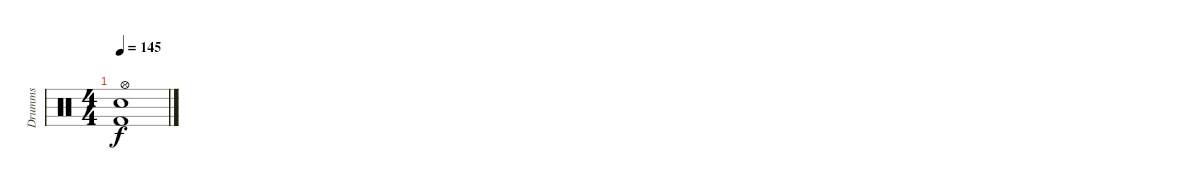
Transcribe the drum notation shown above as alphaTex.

\track ("Drumms" "Drumms") {instrument percussion}
\staff {score}
\articulation defaults
\ts (4 4)
\tempo 145
\clef neutral
\ks c
("Electric Snare (hit)" "Hi-Hat (open)" "Kick (hit) 2").1{dy f}
